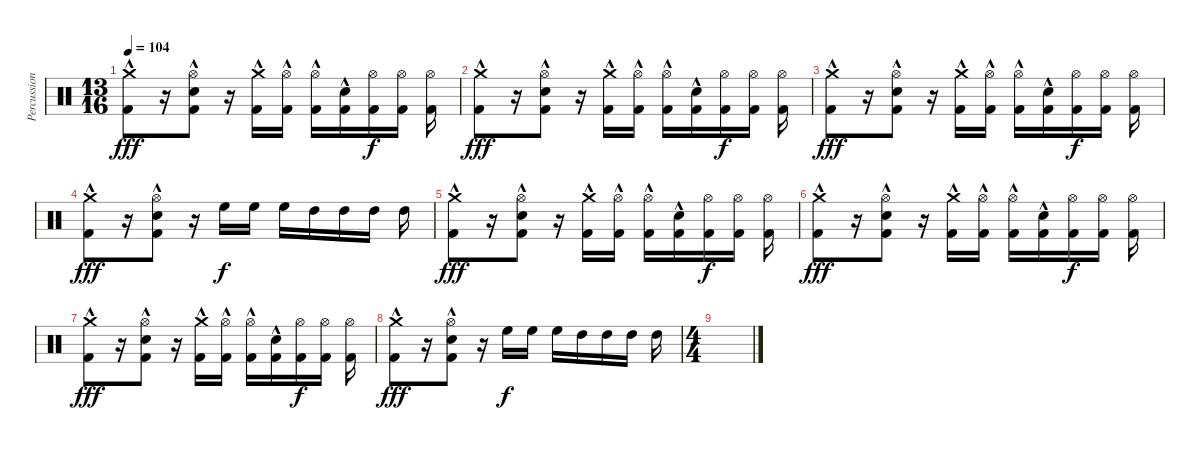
\track ("Percussion" "Percussion") {instrument percussion}
\staff {score}
\articulation defaults
\ts (13 16)
\tempo 104
\clef neutral
\ks c
("Crash medium (hit)"{hac} "Kick (hit) 2"{hac}).8{dy fff} r.16 ("Hi-Hat (open)"{hac} "Electric Snare (hit)"{hac} "Kick (hit) 2"{hac}).8 r.16 ("Crash medium (hit)" "Kick (hit) 2"{hac}).16 ("Hi-Hat (open)" "Kick (hit) 2"{hac}).16 ("Hi-Hat (open)" "Kick (hit) 2"{hac}).16 ("Electric Snare (hit)"{hac} "Kick (hit) 2"{hac}).16 ("Hi-Hat (open)" "Kick (hit) 2").16{dy f} ("Hi-Hat (open)" "Kick (hit) 2").16 ("Hi-Hat (open)" "Kick (hit) 2").16 |
("Crash medium (hit)"{hac} "Kick (hit) 2"{hac}).8{dy fff} r.16 ("Hi-Hat (open)"{hac} "Electric Snare (hit)"{hac} "Kick (hit) 2"{hac}).8 r.16 ("Crash medium (hit)" "Kick (hit) 2"{hac}).16 ("Hi-Hat (open)" "Kick (hit) 2"{hac}).16 ("Hi-Hat (open)" "Kick (hit) 2"{hac}).16 ("Electric Snare (hit)"{hac} "Kick (hit) 2"{hac}).16 ("Hi-Hat (open)" "Kick (hit) 2").16{dy f} ("Hi-Hat (open)" "Kick (hit) 2").16 ("Hi-Hat (open)" "Kick (hit) 2").16 |
("Crash medium (hit)"{hac} "Kick (hit) 2"{hac}).8{dy fff} r.16 ("Hi-Hat (open)"{hac} "Electric Snare (hit)"{hac} "Kick (hit) 2"{hac}).8 r.16 ("Crash medium (hit)" "Kick (hit) 2"{hac}).16 ("Hi-Hat (open)" "Kick (hit) 2"{hac}).16 ("Hi-Hat (open)" "Kick (hit) 2"{hac}).16 ("Electric Snare (hit)"{hac} "Kick (hit) 2"{hac}).16 ("Hi-Hat (open)" "Kick (hit) 2").16{dy f} ("Hi-Hat (open)" "Kick (hit) 2").16 ("Hi-Hat (open)" "Kick (hit) 2").16 |
("Crash medium (hit)"{hac} "Kick (hit) 2"{hac}).8{dy fff} r.16 ("Hi-Hat (open)"{hac} "Electric Snare (hit)"{hac} "Kick (hit) 2"{hac}).8 r.16 "High Floor Tom (hit)".16{dy f} "High Floor Tom (hit)".16 "High Floor Tom (hit)".16 "High Tom (hit)".16 "High Tom (hit)".16 "High Tom (hit)".16 "High Tom (hit)".16 |
("Crash medium (hit)"{hac} "Kick (hit) 2"{hac}).8{dy fff} r.16 ("Hi-Hat (open)"{hac} "Electric Snare (hit)"{hac} "Kick (hit) 2"{hac}).8 r.16 ("Crash medium (hit)" "Kick (hit) 2"{hac}).16 ("Hi-Hat (open)" "Kick (hit) 2"{hac}).16 ("Hi-Hat (open)" "Kick (hit) 2"{hac}).16 ("Electric Snare (hit)"{hac} "Kick (hit) 2"{hac}).16 ("Hi-Hat (open)" "Kick (hit) 2").16{dy f} ("Hi-Hat (open)" "Kick (hit) 2").16 ("Hi-Hat (open)" "Kick (hit) 2").16 |
("Crash medium (hit)"{hac} "Kick (hit) 2"{hac}).8{dy fff} r.16 ("Hi-Hat (open)"{hac} "Electric Snare (hit)"{hac} "Kick (hit) 2"{hac}).8 r.16 ("Crash medium (hit)" "Kick (hit) 2"{hac}).16 ("Hi-Hat (open)" "Kick (hit) 2"{hac}).16 ("Hi-Hat (open)" "Kick (hit) 2"{hac}).16 ("Electric Snare (hit)"{hac} "Kick (hit) 2"{hac}).16 ("Hi-Hat (open)" "Kick (hit) 2").16{dy f} ("Hi-Hat (open)" "Kick (hit) 2").16 ("Hi-Hat (open)" "Kick (hit) 2").16 |
("Crash medium (hit)"{hac} "Kick (hit) 2"{hac}).8{dy fff} r.16 ("Hi-Hat (open)"{hac} "Electric Snare (hit)"{hac} "Kick (hit) 2"{hac}).8 r.16 ("Crash medium (hit)" "Kick (hit) 2"{hac}).16 ("Hi-Hat (open)" "Kick (hit) 2"{hac}).16 ("Hi-Hat (open)" "Kick (hit) 2"{hac}).16 ("Electric Snare (hit)"{hac} "Kick (hit) 2"{hac}).16 ("Hi-Hat (open)" "Kick (hit) 2").16{dy f} ("Hi-Hat (open)" "Kick (hit) 2").16 ("Hi-Hat (open)" "Kick (hit) 2").16 |
("Crash medium (hit)"{hac} "Kick (hit) 2"{hac}).8{dy fff} r.16 ("Hi-Hat (open)"{hac} "Electric Snare (hit)"{hac} "Kick (hit) 2"{hac}).8 r.16 "High Floor Tom (hit)".16{dy f} "High Floor Tom (hit)".16 "High Floor Tom (hit)".16 "High Tom (hit)".16 "High Tom (hit)".16 "High Tom (hit)".16 "High Tom (hit)".16 |
\ts (4 4)
